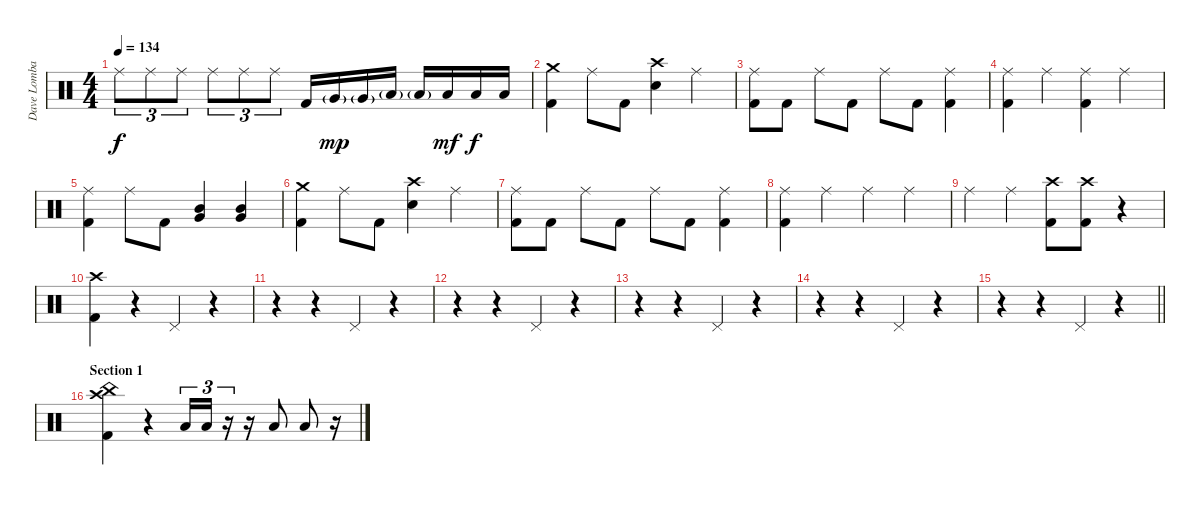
\track ("Dave Lombardo (Drums)" "Dave Lomba") {instrument percussion}
\staff {score}
\articulation defaults
\ts (4 4)
\tempo 134
\clef neutral
\ks c "Ride (middle)".8{tu (3 2) dy f} "Ride (middle)".8{tu (3 2)} "Ride (middle)".8{tu (3 2)} "Ride (middle)".8{tu (3 2)} "Ride (middle)".8{tu (3 2)} "Ride (middle)".8{tu (3 2)} "Kick (hit) 2".16 "Very Low Tom (hit)"{g}.16{dy mp} "Very Low Tom (hit)"{g}.16 "Low Floor Tom (hit)"{g}.16 "Low Floor Tom (hit)"{g}.16 "Low Floor Tom (hit)".16{dy mf} "Low Floor Tom (hit)".16{dy f} "Low Floor Tom (hit)".16
|
("Crash medium (hit)" "Kick (hit) 2").4 "Ride (middle)".8 "Kick (hit) 2".8 ("Crash high (hit)" "Electric Snare (hit)").4 "Ride (middle)".4 |
("Ride (middle)" "Kick (hit) 2").8 "Kick (hit) 2".8 "Ride (middle)".8 "Kick (hit) 2".8 "Ride (middle)".8 "Kick (hit) 2".8 ("Ride (middle)" "Kick (hit) 2").4 |
("Ride (middle)" "Kick (hit) 2").4 "Ride (middle)".4 ("Ride (middle)" "Kick (hit) 2").4 "Ride (middle)".4 |
("Ride (middle)" "Kick (hit) 2").4 "Ride (middle)".8 "Kick (hit) 2".8 ("Mid Tom (hit)" "Very Low Tom (hit)").4{bd 120} ("Mid Tom (hit)" "Very Low Tom (hit)").4{bd 120} |
("Crash medium (hit)" "Kick (hit) 2").4 "Ride (middle)".8 "Kick (hit) 2".8 ("Crash high (hit)" "Electric Snare (hit)").4 "Ride (middle)".4 |
("Ride (middle)" "Kick (hit) 2").8 "Kick (hit) 2".8 "Ride (middle)".8 "Kick (hit) 2".8 "Ride (middle)".8 "Kick (hit) 2".8 ("Ride (middle)" "Kick (hit) 2").4 |
("Ride (middle)" "Kick (hit) 2").4 "Ride (middle)".4 "Ride (middle)".4 "Ride (middle)".4 |
"Ride (middle)".4 "Ride (middle)".4 ("Crash high (hit)" "Kick (hit) 2").8 ("Crash high (hit)" "Kick (hit) 2").8 r.4 |
("Crash high (hit)" "Kick (hit) 2").4 r.4 "Pedal Hi-Hat (hit)".4 r.4 |
r.4 r.4 "Pedal Hi-Hat (hit)".4 r.4 |
r.4 r.4 "Pedal Hi-Hat (hit)".4 r.4 |
r.4 r.4 "Pedal Hi-Hat (hit)".4 r.4 |
r.4 r.4 "Pedal Hi-Hat (hit)".4 r.4 |
\barLineRight lightlight
r.4 r.4 "Pedal Hi-Hat (hit)".4 r.4 |
\section ("" "Section 1")
("China (hit)" "Crash high (hit)" "Kick (hit) 2").4 r.4 "Low Tom (hit)".16{tu (3 2)} "Low Tom (hit)".16{tu (3 2)} r.16{tu (3 2)} r.16 "Low Tom (hit)".8 "Low Tom (hit)".8 r.16
